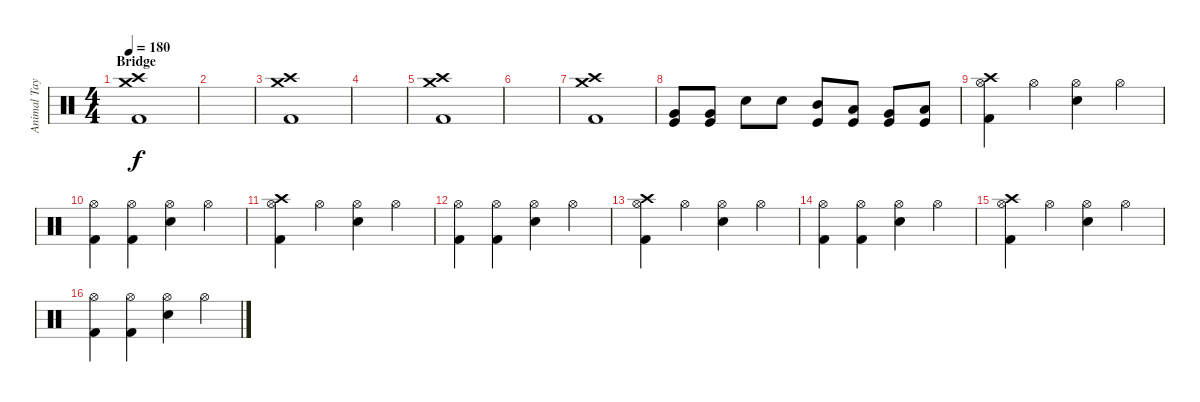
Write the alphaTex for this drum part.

\track ("Animal Taylor" "Animal Tay") {instrument percussion}
\staff {score}
\articulation defaults
\ts (4 4)
\section ("" "Bridge")
\tempo 180
\clef neutral
\ks c
("Crash medium (hit)" "Crash high (hit)" "Kick (hit) 2").1{dy f} |
|
("Crash medium (hit)" "Crash high (hit)" "Kick (hit) 2").1 |
|
("Crash medium (hit)" "Crash high (hit)" "Kick (hit) 2").1 |
|
("Crash medium (hit)" "Crash high (hit)" "Kick (hit) 2").1 |
("Very Low Tom (hit)" "Kick (hit)").8 ("Very Low Tom (hit)" "Kick (hit)").8 "Snare (hit) 2".8 "Snare (hit) 2".8 ("Mid Tom (hit)" "Kick (hit)").8 ("Low Tom (hit)" "Kick (hit)").8 ("Very Low Tom (hit)" "Kick (hit)").8 ("Low Floor Tom (hit)" "Kick (hit)").8 |
("Hi-Hat (open)" "Crash high (hit)" "Kick (hit) 2").4 "Hi-Hat (open)".4 ("Hi-Hat (open)" "Snare (hit) 2").4 "Hi-Hat (open)".4 |
("Hi-Hat (open)" "Kick (hit) 2").4 ("Hi-Hat (open)" "Kick (hit) 2").4 ("Hi-Hat (open)" "Snare (hit) 2").4 "Hi-Hat (open)".4 |
("Hi-Hat (open)" "Crash high (hit)" "Kick (hit) 2").4 "Hi-Hat (open)".4 ("Hi-Hat (open)" "Snare (hit) 2").4 "Hi-Hat (open)".4 |
("Hi-Hat (open)" "Kick (hit) 2").4 ("Hi-Hat (open)" "Kick (hit) 2").4 ("Hi-Hat (open)" "Snare (hit) 2").4 "Hi-Hat (open)".4 |
("Hi-Hat (open)" "Crash high (hit)" "Kick (hit) 2").4 "Hi-Hat (open)".4 ("Hi-Hat (open)" "Snare (hit) 2").4 "Hi-Hat (open)".4 |
("Hi-Hat (open)" "Kick (hit) 2").4 ("Hi-Hat (open)" "Kick (hit) 2").4 ("Hi-Hat (open)" "Snare (hit) 2").4 "Hi-Hat (open)".4 |
("Hi-Hat (open)" "Crash high (hit)" "Kick (hit) 2").4 "Hi-Hat (open)".4 ("Hi-Hat (open)" "Snare (hit) 2").4 "Hi-Hat (open)".4 |
("Hi-Hat (open)" "Kick (hit) 2").4 ("Hi-Hat (open)" "Kick (hit) 2").4 ("Hi-Hat (open)" "Snare (hit) 2").4 "Hi-Hat (open)".4
